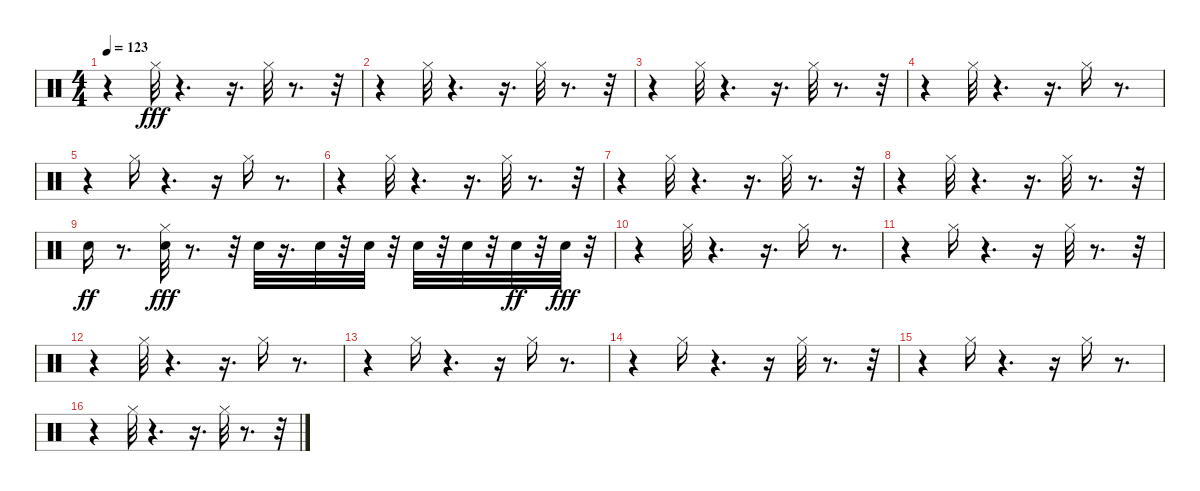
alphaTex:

\track "" {instrument percussion}
\staff {score}
\articulation defaults
\ts (4 4)
\tempo 123
\clef neutral
\ks c
r.4{dy fff} "Hi-Hat (closed)".32 r.4{d} r.16{d} "Hi-Hat (closed)".32 r.8{d} r.32 |
r.4 "Hi-Hat (closed)".32 r.4{d} r.16{d} "Hi-Hat (closed)".32 r.8{d} r.32 |
r.4 "Hi-Hat (closed)".32 r.4{d} r.16{d} "Hi-Hat (closed)".32 r.8{d} r.32 |
r.4 "Hi-Hat (closed)".32 r.4{d} r.16{d} "Hi-Hat (closed)".16 r.8{d} |
r.4 "Hi-Hat (closed)".16 r.4{d} r.16 "Hi-Hat (closed)".16 r.8{d} |
r.4 "Hi-Hat (closed)".32 r.4{d} r.16{d} "Hi-Hat (closed)".32 r.8{d} r.32 |
r.4 "Hi-Hat (closed)".32 r.4{d} r.16{d} "Hi-Hat (closed)".32 r.8{d} r.32 |
r.4 "Hi-Hat (closed)".32 r.4{d} r.16{d} "Hi-Hat (closed)".32 r.8{d} r.32 |
"Snare (hit) 2".16{dy ff} r.8{d} ("Snare (hit) 2" "Hi-Hat (closed)").32{dy fff} r.8{d} r.32 "Snare (hit) 2".32 r.16{d} "Snare (hit) 2".32 r.32 "Snare (hit) 2".32 r.32 "Snare (hit) 2".32 r.32 "Snare (hit) 2".32 r.32 "Snare (hit) 2".32{dy ff} r.32 "Snare (hit) 2".32{dy fff} r.32 |
r.4 "Hi-Hat (closed)".32 r.4{d} r.16{d} "Hi-Hat (closed)".16 r.8{d} |
r.4 "Hi-Hat (closed)".16 r.4{d} r.16 "Hi-Hat (closed)".32 r.8{d} r.32 |
r.4 "Hi-Hat (closed)".32 r.4{d} r.16{d} "Hi-Hat (closed)".16 r.8{d} |
r.4 "Hi-Hat (closed)".16 r.4{d} r.16 "Hi-Hat (closed)".16 r.8{d} |
r.4 "Hi-Hat (closed)".16 r.4{d} r.16 "Hi-Hat (closed)".32 r.8{d} r.32 |
r.4 "Hi-Hat (closed)".16 r.4{d} r.16 "Hi-Hat (closed)".16 r.8{d} |
r.4 "Hi-Hat (closed)".32 r.4{d} r.16{d} "Hi-Hat (closed)".32 r.8{d} r.32
